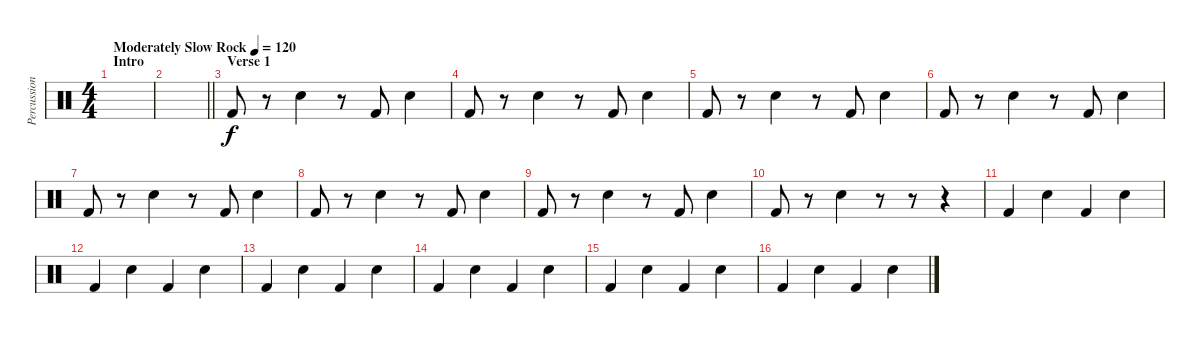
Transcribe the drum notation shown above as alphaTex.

\track ("Percussion" "Percussion") {instrument percussion}
\staff {score}
\articulation defaults
\ts (4 4)
\section ("" "Intro")
\tempo (120 "Moderately Slow Rock")
\clef neutral
\ks c
|
\barLineRight lightlight
|
\section ("" "Verse 1")
"Kick (hit) 2".8 r.8 "Electric Snare (hit)".4 r.8 "Kick (hit) 2".8 "Electric Snare (hit)".4 |
"Kick (hit) 2".8 r.8 "Electric Snare (hit)".4 r.8 "Kick (hit) 2".8 "Electric Snare (hit)".4 |
"Kick (hit) 2".8 r.8 "Electric Snare (hit)".4 r.8 "Kick (hit) 2".8 "Electric Snare (hit)".4 |
"Kick (hit) 2".8 r.8 "Electric Snare (hit)".4 r.8 "Kick (hit) 2".8 "Electric Snare (hit)".4 |
"Kick (hit) 2".8 r.8 "Electric Snare (hit)".4 r.8 "Kick (hit) 2".8 "Electric Snare (hit)".4 |
"Kick (hit) 2".8 r.8 "Electric Snare (hit)".4 r.8 "Kick (hit) 2".8 "Electric Snare (hit)".4 |
"Kick (hit) 2".8 r.8 "Electric Snare (hit)".4 r.8 "Kick (hit) 2".8 "Electric Snare (hit)".4 |
"Kick (hit) 2".8 r.8 "Electric Snare (hit)".4 r.8 r.8 r.4 |
"Kick (hit) 2".4 "Electric Snare (hit)".4 "Kick (hit) 2".4 "Electric Snare (hit)".4 |
"Kick (hit) 2".4 "Electric Snare (hit)".4 "Kick (hit) 2".4 "Electric Snare (hit)".4 |
"Kick (hit) 2".4 "Electric Snare (hit)".4 "Kick (hit) 2".4 "Electric Snare (hit)".4 |
"Kick (hit) 2".4 "Electric Snare (hit)".4 "Kick (hit) 2".4 "Electric Snare (hit)".4 |
"Kick (hit) 2".4 "Electric Snare (hit)".4 "Kick (hit) 2".4 "Electric Snare (hit)".4 |
"Kick (hit) 2".4 "Electric Snare (hit)".4 "Kick (hit) 2".4 "Electric Snare (hit)".4
